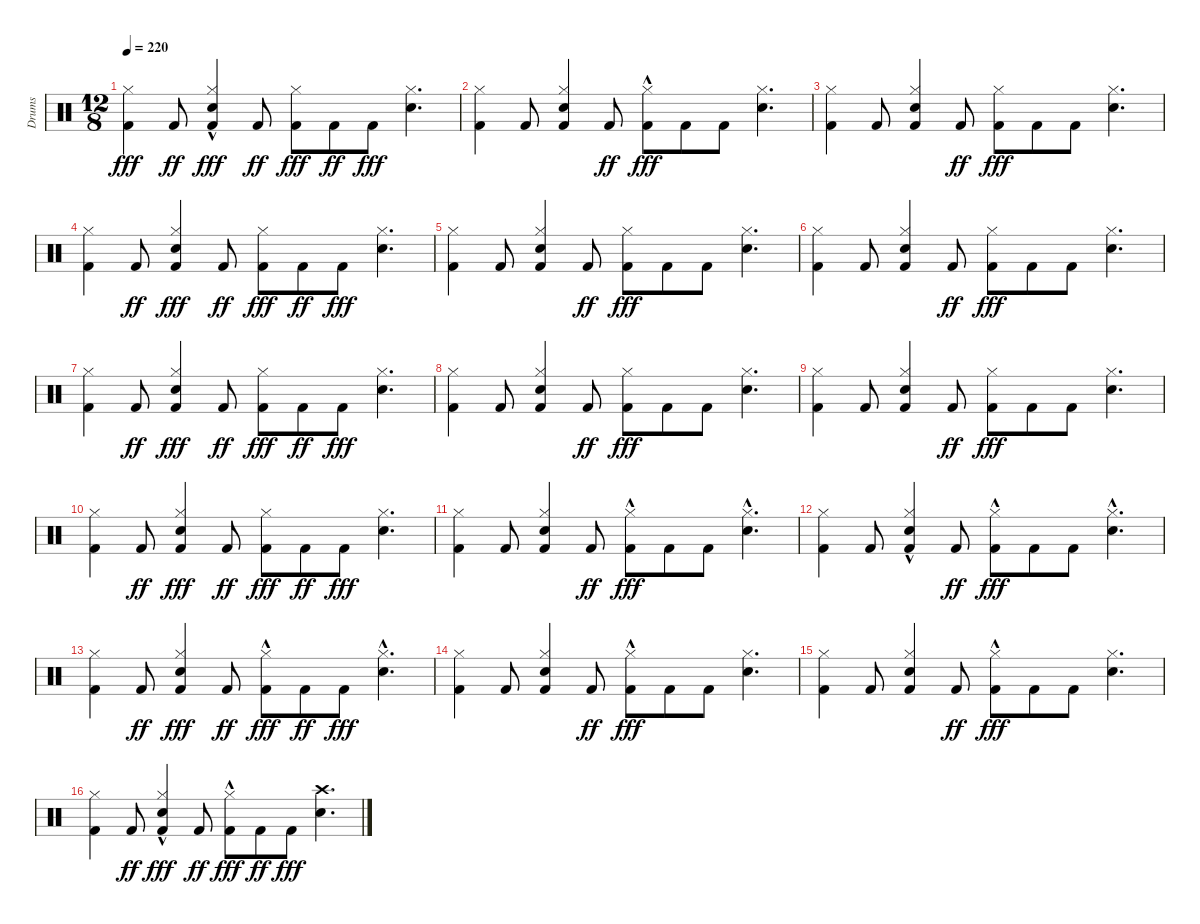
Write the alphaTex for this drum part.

\track ("Drums" "Drums") {instrument percussion}
\staff {score}
\articulation defaults
\ts (12 8)
\tempo 220
\clef neutral
\ks c
("Kick (hit) 2" "Hi-Hat (closed)").4{dy fff} "Kick (hit) 2".8{dy ff} ("Kick (hit) 2" "Snare (hit) 2"{hac} "Hi-Hat (closed)").4{dy fff} "Kick (hit) 2".8{dy ff} ("Kick (hit) 2" "Hi-Hat (closed)").8{dy fff} "Kick (hit) 2".8{dy ff} "Kick (hit) 2".8{dy fff} ("Snare (hit) 2" "Hi-Hat (closed)").4{d} |
("Kick (hit) 2" "Hi-Hat (closed)").4 "Kick (hit) 2".8 ("Kick (hit) 2" "Snare (hit) 2" "Hi-Hat (closed)").4 "Kick (hit) 2".8{dy ff} ("Kick (hit) 2" "Hi-Hat (closed)"{hac}).8{dy fff} "Kick (hit) 2".8 "Kick (hit) 2".8 ("Snare (hit) 2" "Hi-Hat (closed)").4{d} |
("Kick (hit) 2" "Hi-Hat (closed)").4 "Kick (hit) 2".8 ("Kick (hit) 2" "Snare (hit) 2" "Hi-Hat (closed)").4 "Kick (hit) 2".8{dy ff} ("Kick (hit) 2" "Hi-Hat (closed)").8{dy fff} "Kick (hit) 2".8 "Kick (hit) 2".8 ("Snare (hit) 2" "Hi-Hat (closed)").4{d} |
("Kick (hit) 2" "Hi-Hat (closed)").4 "Kick (hit) 2".8{dy ff} ("Kick (hit) 2" "Snare (hit) 2" "Hi-Hat (closed)").4{dy fff} "Kick (hit) 2".8{dy ff} ("Kick (hit) 2" "Hi-Hat (closed)").8{dy fff} "Kick (hit) 2".8{dy ff} "Kick (hit) 2".8{dy fff} ("Snare (hit) 2" "Hi-Hat (closed)").4{d} |
("Kick (hit) 2" "Hi-Hat (closed)").4 "Kick (hit) 2".8 ("Kick (hit) 2" "Snare (hit) 2" "Hi-Hat (closed)").4 "Kick (hit) 2".8{dy ff} ("Kick (hit) 2" "Hi-Hat (closed)").8{dy fff} "Kick (hit) 2".8 "Kick (hit) 2".8 ("Snare (hit) 2" "Hi-Hat (closed)").4{d} |
("Kick (hit) 2" "Hi-Hat (closed)").4 "Kick (hit) 2".8 ("Kick (hit) 2" "Snare (hit) 2" "Hi-Hat (closed)").4 "Kick (hit) 2".8{dy ff} ("Kick (hit) 2" "Hi-Hat (closed)").8{dy fff} "Kick (hit) 2".8 "Kick (hit) 2".8 ("Snare (hit) 2" "Hi-Hat (closed)").4{d} |
("Kick (hit) 2" "Hi-Hat (closed)").4 "Kick (hit) 2".8{dy ff} ("Kick (hit) 2" "Snare (hit) 2" "Hi-Hat (closed)").4{dy fff} "Kick (hit) 2".8{dy ff} ("Kick (hit) 2" "Hi-Hat (closed)").8{dy fff} "Kick (hit) 2".8{dy ff} "Kick (hit) 2".8{dy fff} ("Snare (hit) 2" "Hi-Hat (closed)").4{d} |
("Kick (hit) 2" "Hi-Hat (closed)").4 "Kick (hit) 2".8 ("Kick (hit) 2" "Snare (hit) 2" "Hi-Hat (closed)").4 "Kick (hit) 2".8{dy ff} ("Kick (hit) 2" "Hi-Hat (closed)").8{dy fff} "Kick (hit) 2".8 "Kick (hit) 2".8 ("Snare (hit) 2" "Hi-Hat (closed)").4{d} |
("Kick (hit) 2" "Hi-Hat (closed)").4 "Kick (hit) 2".8 ("Kick (hit) 2" "Snare (hit) 2" "Hi-Hat (closed)").4 "Kick (hit) 2".8{dy ff} ("Kick (hit) 2" "Hi-Hat (closed)").8{dy fff} "Kick (hit) 2".8 "Kick (hit) 2".8 ("Snare (hit) 2" "Hi-Hat (closed)").4{d} |
("Kick (hit) 2" "Hi-Hat (closed)").4 "Kick (hit) 2".8{dy ff} ("Kick (hit) 2" "Snare (hit) 2" "Hi-Hat (closed)").4{dy fff} "Kick (hit) 2".8{dy ff} ("Kick (hit) 2" "Hi-Hat (closed)").8{dy fff} "Kick (hit) 2".8{dy ff} "Kick (hit) 2".8{dy fff} ("Snare (hit) 2" "Hi-Hat (closed)").4{d} |
("Kick (hit) 2" "Hi-Hat (closed)").4 "Kick (hit) 2".8 ("Kick (hit) 2" "Snare (hit) 2" "Hi-Hat (closed)").4 "Kick (hit) 2".8{dy ff} ("Kick (hit) 2" "Hi-Hat (closed)"{hac}).8{dy fff} "Kick (hit) 2".8 "Kick (hit) 2".8 ("Snare (hit) 2" "Hi-Hat (closed)"{hac}).4{d} |
("Kick (hit) 2" "Hi-Hat (closed)").4 "Kick (hit) 2".8 ("Kick (hit) 2" "Snare (hit) 2" "Hi-Hat (closed)"{hac}).4 "Kick (hit) 2".8{dy ff} ("Kick (hit) 2" "Hi-Hat (closed)"{hac}).8{dy fff} "Kick (hit) 2".8 "Kick (hit) 2".8 ("Snare (hit) 2" "Hi-Hat (closed)"{hac}).4{d} |
("Kick (hit) 2" "Hi-Hat (closed)").4 "Kick (hit) 2".8{dy ff} ("Kick (hit) 2" "Snare (hit) 2" "Hi-Hat (closed)").4{dy fff} "Kick (hit) 2".8{dy ff} ("Kick (hit) 2" "Hi-Hat (closed)"{hac}).8{dy fff} "Kick (hit) 2".8{dy ff} "Kick (hit) 2".8{dy fff} ("Snare (hit) 2" "Hi-Hat (closed)"{hac}).4{d} |
("Kick (hit) 2" "Hi-Hat (closed)").4 "Kick (hit) 2".8 ("Kick (hit) 2" "Snare (hit) 2" "Hi-Hat (closed)").4 "Kick (hit) 2".8{dy ff} ("Kick (hit) 2" "Hi-Hat (closed)"{hac}).8{dy fff} "Kick (hit) 2".8 "Kick (hit) 2".8 ("Snare (hit) 2" "Hi-Hat (closed)").4{d} |
("Kick (hit) 2" "Hi-Hat (closed)").4 "Kick (hit) 2".8 ("Kick (hit) 2" "Snare (hit) 2" "Hi-Hat (closed)").4 "Kick (hit) 2".8{dy ff} ("Kick (hit) 2" "Hi-Hat (closed)"{hac}).8{dy fff} "Kick (hit) 2".8 "Kick (hit) 2".8 ("Snare (hit) 2" "Hi-Hat (closed)").4{d} |
("Kick (hit) 2" "Hi-Hat (closed)").4 "Kick (hit) 2".8{dy ff} ("Kick (hit) 2" "Snare (hit) 2" "Hi-Hat (closed)"{hac}).4{dy fff} "Kick (hit) 2".8{dy ff} ("Kick (hit) 2" "Hi-Hat (closed)"{hac}).8{dy fff} "Kick (hit) 2".8{dy ff} "Kick (hit) 2".8{dy fff} ("Snare (hit) 2" "Crash high (hit)").4{d}
